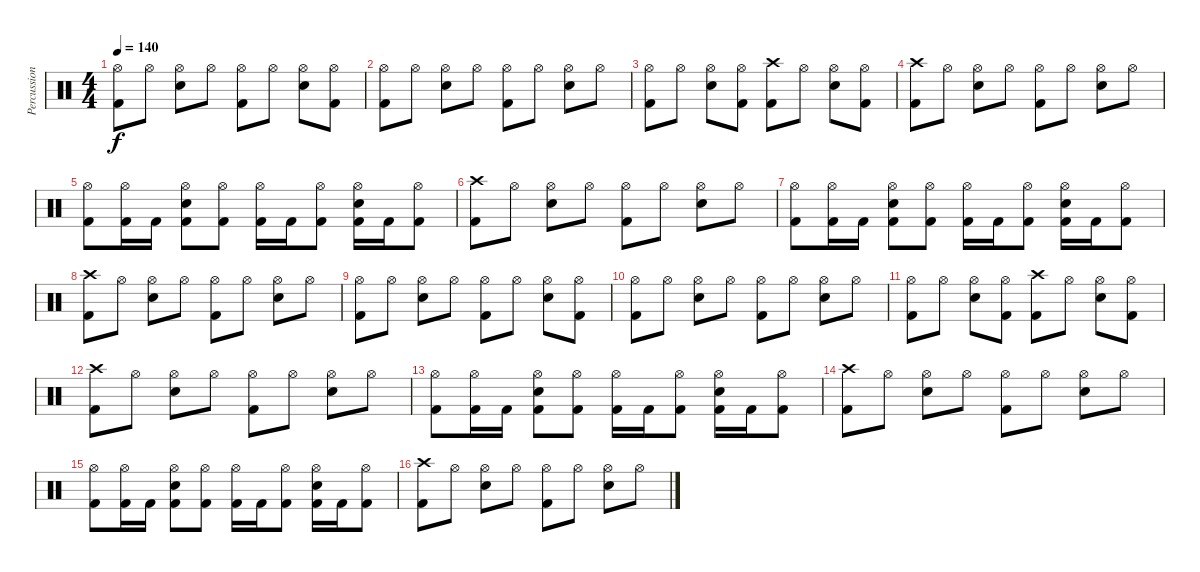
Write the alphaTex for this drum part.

\track ("Percussion" "Percussion") {instrument percussion}
\staff {score}
\articulation defaults
\ts (4 4)
\tempo 140
\clef neutral
\ks c
("Hi-Hat (open)" "Kick (hit) 2").8{dy f} "Hi-Hat (open)".8 ("Hi-Hat (open)" "Electric Snare (hit)").8 "Hi-Hat (open)".8 ("Hi-Hat (open)" "Kick (hit) 2").8 "Hi-Hat (open)".8 ("Hi-Hat (open)" "Electric Snare (hit)").8 ("Hi-Hat (open)" "Kick (hit) 2").8 |
("Hi-Hat (open)" "Kick (hit) 2").8 "Hi-Hat (open)".8 ("Hi-Hat (open)" "Electric Snare (hit)").8 "Hi-Hat (open)".8 ("Hi-Hat (open)" "Kick (hit) 2").8 "Hi-Hat (open)".8 ("Hi-Hat (open)" "Electric Snare (hit)").8 "Hi-Hat (open)".8 |
("Hi-Hat (open)" "Kick (hit) 2").8 "Hi-Hat (open)".8 ("Hi-Hat (open)" "Electric Snare (hit)").8 ("Hi-Hat (open)" "Kick (hit) 2").8 ("Crash high (hit)" "Kick (hit) 2").8 "Hi-Hat (open)".8 ("Hi-Hat (open)" "Electric Snare (hit)").8 ("Hi-Hat (open)" "Kick (hit) 2").8 |
("Crash high (hit)" "Kick (hit) 2").8 "Hi-Hat (open)".8 ("Hi-Hat (open)" "Electric Snare (hit)").8 "Hi-Hat (open)".8 ("Hi-Hat (open)" "Kick (hit) 2").8 "Hi-Hat (open)".8 ("Hi-Hat (open)" "Electric Snare (hit)").8 "Hi-Hat (open)".8 |
("Hi-Hat (open)" "Kick (hit) 2").8 ("Hi-Hat (open)" "Kick (hit) 2").16 "Kick (hit) 2".16 ("Hi-Hat (open)" "Electric Snare (hit)" "Kick (hit) 2").8 ("Hi-Hat (open)" "Kick (hit) 2").8 ("Hi-Hat (open)" "Kick (hit) 2").16 "Kick (hit) 2".16 ("Hi-Hat (open)" "Kick (hit) 2").8 ("Hi-Hat (open)" "Electric Snare (hit)" "Kick (hit) 2").16 "Kick (hit) 2".16 ("Hi-Hat (open)" "Kick (hit) 2").8 |
("Crash high (hit)" "Kick (hit) 2").8 "Hi-Hat (open)".8 ("Hi-Hat (open)" "Electric Snare (hit)").8 "Hi-Hat (open)".8 ("Hi-Hat (open)" "Kick (hit) 2").8 "Hi-Hat (open)".8 ("Hi-Hat (open)" "Electric Snare (hit)").8 "Hi-Hat (open)".8 |
("Hi-Hat (open)" "Kick (hit) 2").8 ("Hi-Hat (open)" "Kick (hit) 2").16 "Kick (hit) 2".16 ("Hi-Hat (open)" "Electric Snare (hit)" "Kick (hit) 2").8 ("Hi-Hat (open)" "Kick (hit) 2").8 ("Hi-Hat (open)" "Kick (hit) 2").16 "Kick (hit) 2".16 ("Hi-Hat (open)" "Kick (hit) 2").8 ("Hi-Hat (open)" "Electric Snare (hit)" "Kick (hit) 2").16 "Kick (hit) 2".16 ("Hi-Hat (open)" "Kick (hit) 2").8 |
("Crash high (hit)" "Kick (hit) 2").8 "Hi-Hat (open)".8 ("Hi-Hat (open)" "Electric Snare (hit)").8 "Hi-Hat (open)".8 ("Hi-Hat (open)" "Kick (hit) 2").8 "Hi-Hat (open)".8 ("Hi-Hat (open)" "Electric Snare (hit)").8 "Hi-Hat (open)".8 |
("Hi-Hat (open)" "Kick (hit) 2").8 "Hi-Hat (open)".8 ("Hi-Hat (open)" "Electric Snare (hit)").8 "Hi-Hat (open)".8 ("Hi-Hat (open)" "Kick (hit) 2").8 "Hi-Hat (open)".8 ("Hi-Hat (open)" "Electric Snare (hit)").8 ("Hi-Hat (open)" "Kick (hit) 2").8 |
("Hi-Hat (open)" "Kick (hit) 2").8 "Hi-Hat (open)".8 ("Hi-Hat (open)" "Electric Snare (hit)").8 "Hi-Hat (open)".8 ("Hi-Hat (open)" "Kick (hit) 2").8 "Hi-Hat (open)".8 ("Hi-Hat (open)" "Electric Snare (hit)").8 "Hi-Hat (open)".8 |
("Hi-Hat (open)" "Kick (hit) 2").8 "Hi-Hat (open)".8 ("Hi-Hat (open)" "Electric Snare (hit)").8 ("Hi-Hat (open)" "Kick (hit) 2").8 ("Crash high (hit)" "Kick (hit) 2").8 "Hi-Hat (open)".8 ("Hi-Hat (open)" "Electric Snare (hit)").8 ("Hi-Hat (open)" "Kick (hit) 2").8 |
("Crash high (hit)" "Kick (hit) 2").8 "Hi-Hat (open)".8 ("Hi-Hat (open)" "Electric Snare (hit)").8 "Hi-Hat (open)".8 ("Hi-Hat (open)" "Kick (hit) 2").8 "Hi-Hat (open)".8 ("Hi-Hat (open)" "Electric Snare (hit)").8 "Hi-Hat (open)".8 |
("Hi-Hat (open)" "Kick (hit) 2").8 ("Hi-Hat (open)" "Kick (hit) 2").16 "Kick (hit) 2".16 ("Hi-Hat (open)" "Electric Snare (hit)" "Kick (hit) 2").8 ("Hi-Hat (open)" "Kick (hit) 2").8 ("Hi-Hat (open)" "Kick (hit) 2").16 "Kick (hit) 2".16 ("Hi-Hat (open)" "Kick (hit) 2").8 ("Hi-Hat (open)" "Electric Snare (hit)" "Kick (hit) 2").16 "Kick (hit) 2".16 ("Hi-Hat (open)" "Kick (hit) 2").8 |
("Crash high (hit)" "Kick (hit) 2").8 "Hi-Hat (open)".8 ("Hi-Hat (open)" "Electric Snare (hit)").8 "Hi-Hat (open)".8 ("Hi-Hat (open)" "Kick (hit) 2").8 "Hi-Hat (open)".8 ("Hi-Hat (open)" "Electric Snare (hit)").8 "Hi-Hat (open)".8 |
("Hi-Hat (open)" "Kick (hit) 2").8 ("Hi-Hat (open)" "Kick (hit) 2").16 "Kick (hit) 2".16 ("Hi-Hat (open)" "Electric Snare (hit)" "Kick (hit) 2").8 ("Hi-Hat (open)" "Kick (hit) 2").8 ("Hi-Hat (open)" "Kick (hit) 2").16 "Kick (hit) 2".16 ("Hi-Hat (open)" "Kick (hit) 2").8 ("Hi-Hat (open)" "Electric Snare (hit)" "Kick (hit) 2").16 "Kick (hit) 2".16 ("Hi-Hat (open)" "Kick (hit) 2").8 |
("Crash high (hit)" "Kick (hit) 2").8 "Hi-Hat (open)".8 ("Hi-Hat (open)" "Electric Snare (hit)").8 "Hi-Hat (open)".8 ("Hi-Hat (open)" "Kick (hit) 2").8 "Hi-Hat (open)".8 ("Hi-Hat (open)" "Electric Snare (hit)").8 "Hi-Hat (open)".8
